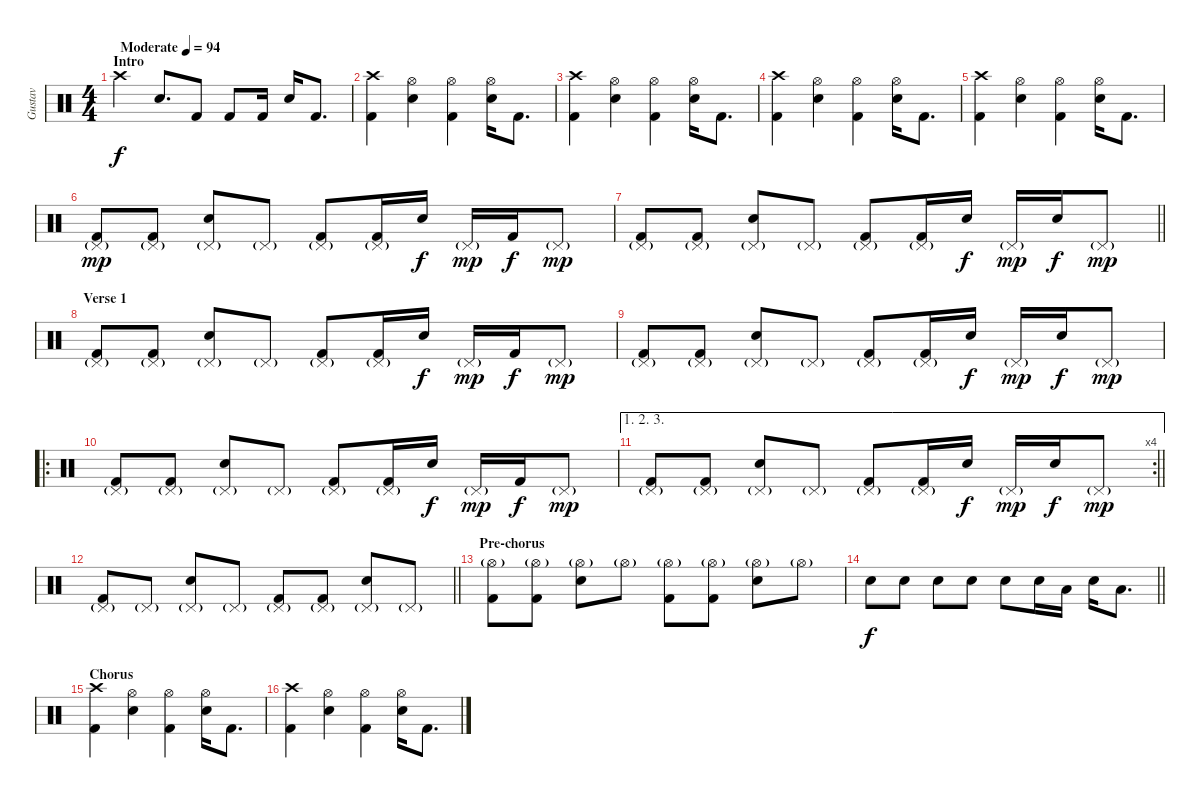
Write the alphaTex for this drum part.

\track ("Gustav" "Gustav") {instrument percussion}
\staff {score}
\articulation defaults
\ts (4 4)
\section ("" "Intro")
\tempo (94 "Moderate")
\clef neutral
\ks c "Crash high (hit)".4{dy f} "Electric Snare (hit)".8{d} "Kick (hit) 2".8 "Kick (hit) 2".8 "Kick (hit) 2".16 "Electric Snare (hit)".16 "Kick (hit) 2".8{d}
|
("Crash high (hit)" "Kick (hit) 2").4 ("Hi-Hat (open)" "Electric Snare (hit)").4 ("Hi-Hat (open)" "Kick (hit) 2").4 ("Hi-Hat (open)" "Electric Snare (hit)").16 "Kick (hit) 2".8{d} |
("Crash high (hit)" "Kick (hit) 2").4 ("Hi-Hat (open)" "Electric Snare (hit)").4 ("Hi-Hat (open)" "Kick (hit) 2").4 ("Hi-Hat (open)" "Electric Snare (hit)").16 "Kick (hit) 2".8{d} |
("Crash high (hit)" "Kick (hit) 2").4 ("Hi-Hat (open)" "Electric Snare (hit)").4 ("Hi-Hat (open)" "Kick (hit) 2").4 ("Hi-Hat (open)" "Electric Snare (hit)").16 "Kick (hit) 2".8{d} |
("Crash high (hit)" "Kick (hit) 2").4 ("Hi-Hat (open)" "Electric Snare (hit)").4 ("Hi-Hat (open)" "Kick (hit) 2").4 ("Hi-Hat (open)" "Electric Snare (hit)").16 "Kick (hit) 2".8{d} |
("Pedal Hi-Hat (hit)"{g} "Kick (hit) 2").8{dy mp} ("Pedal Hi-Hat (hit)"{g} "Kick (hit) 2").8 ("Pedal Hi-Hat (hit)"{g} "Electric Snare (hit)").8 "Pedal Hi-Hat (hit)"{g}.8 ("Pedal Hi-Hat (hit)"{g} "Kick (hit) 2").8 ("Pedal Hi-Hat (hit)"{g} "Kick (hit) 2").16 "Electric Snare (hit)".16{dy f} "Pedal Hi-Hat (hit)"{g}.16{dy mp} "Kick (hit) 2".16{dy f} "Pedal Hi-Hat (hit)"{g}.8{dy mp} |
\barLineRight lightlight
("Pedal Hi-Hat (hit)"{g} "Kick (hit) 2").8 ("Pedal Hi-Hat (hit)"{g} "Kick (hit) 2").8 ("Pedal Hi-Hat (hit)"{g} "Electric Snare (hit)").8 "Pedal Hi-Hat (hit)"{g}.8 ("Pedal Hi-Hat (hit)"{g} "Kick (hit) 2").8 ("Pedal Hi-Hat (hit)"{g} "Kick (hit) 2").16 "Electric Snare (hit)".16{dy f} "Pedal Hi-Hat (hit)"{g}.16{dy mp} "Electric Snare (hit)".16{dy f} "Pedal Hi-Hat (hit)"{g}.8{dy mp} |
\section ("" "Verse 1")
("Pedal Hi-Hat (hit)"{g} "Kick (hit) 2").8 ("Pedal Hi-Hat (hit)"{g} "Kick (hit) 2").8 ("Pedal Hi-Hat (hit)"{g} "Electric Snare (hit)").8 "Pedal Hi-Hat (hit)"{g}.8 ("Pedal Hi-Hat (hit)"{g} "Kick (hit) 2").8 ("Pedal Hi-Hat (hit)"{g} "Kick (hit) 2").16 "Electric Snare (hit)".16{dy f} "Pedal Hi-Hat (hit)"{g}.16{dy mp} "Kick (hit) 2".16{dy f} "Pedal Hi-Hat (hit)"{g}.8{dy mp} |
("Pedal Hi-Hat (hit)"{g} "Kick (hit) 2").8 ("Pedal Hi-Hat (hit)"{g} "Kick (hit) 2").8 ("Pedal Hi-Hat (hit)"{g} "Electric Snare (hit)").8 "Pedal Hi-Hat (hit)"{g}.8 ("Pedal Hi-Hat (hit)"{g} "Kick (hit) 2").8 ("Pedal Hi-Hat (hit)"{g} "Kick (hit) 2").16 "Electric Snare (hit)".16{dy f} "Pedal Hi-Hat (hit)"{g}.16{dy mp} "Electric Snare (hit)".16{dy f} "Pedal Hi-Hat (hit)"{g}.8{dy mp} |
\ro
("Pedal Hi-Hat (hit)"{g} "Kick (hit) 2").8 ("Pedal Hi-Hat (hit)"{g} "Kick (hit) 2").8 ("Pedal Hi-Hat (hit)"{g} "Electric Snare (hit)").8 "Pedal Hi-Hat (hit)"{g}.8 ("Pedal Hi-Hat (hit)"{g} "Kick (hit) 2").8 ("Pedal Hi-Hat (hit)"{g} "Kick (hit) 2").16 "Electric Snare (hit)".16{dy f} "Pedal Hi-Hat (hit)"{g}.16{dy mp} "Kick (hit) 2".16{dy f} "Pedal Hi-Hat (hit)"{g}.8{dy mp} |
\ae (1 2 3)
\rc 4
\barLineRight lightlight
("Pedal Hi-Hat (hit)"{g} "Kick (hit) 2").8 ("Pedal Hi-Hat (hit)"{g} "Kick (hit) 2").8 ("Pedal Hi-Hat (hit)"{g} "Electric Snare (hit)").8 "Pedal Hi-Hat (hit)"{g}.8 ("Pedal Hi-Hat (hit)"{g} "Kick (hit) 2").8 ("Pedal Hi-Hat (hit)"{g} "Kick (hit) 2").16 "Electric Snare (hit)".16{dy f} "Pedal Hi-Hat (hit)"{g}.16{dy mp} "Electric Snare (hit)".16{dy f} "Pedal Hi-Hat (hit)"{g}.8{dy mp} |
\barLineRight lightlight
("Pedal Hi-Hat (hit)"{g} "Kick (hit) 2").8 "Pedal Hi-Hat (hit)"{g}.8 ("Pedal Hi-Hat (hit)"{g} "Electric Snare (hit)").8 "Pedal Hi-Hat (hit)"{g}.8 ("Pedal Hi-Hat (hit)"{g} "Kick (hit) 2").8 ("Pedal Hi-Hat (hit)"{g} "Kick (hit) 2").8 ("Pedal Hi-Hat (hit)"{g} "Electric Snare (hit)").8 "Pedal Hi-Hat (hit)"{g}.8 |
\section ("" "Pre-chorus")
("Hi-Hat (open)"{g} "Kick (hit) 2").8 ("Hi-Hat (open)"{g} "Kick (hit) 2").8 ("Hi-Hat (open)"{g} "Electric Snare (hit)").8 "Hi-Hat (open)"{g}.8 ("Hi-Hat (open)"{g} "Kick (hit) 2").8 ("Hi-Hat (open)"{g} "Kick (hit) 2").8 ("Hi-Hat (open)"{g} "Electric Snare (hit)").8 "Hi-Hat (open)"{g}.8 |
\barLineRight lightlight "Electric Snare (hit)".8{dy f} "Electric Snare (hit)".8 "Electric Snare (hit)".8 "Electric Snare (hit)".8 "Electric Snare (hit)".8 "Electric Snare (hit)".16 "Low Tom (hit)".16 "Electric Snare (hit)".16 "Low Tom (hit)".8{d}
|
\section ("" "Chorus")
("Crash high (hit)" "Kick (hit) 2").4 ("Hi-Hat (open)" "Electric Snare (hit)").4 ("Hi-Hat (open)" "Kick (hit) 2").4 ("Hi-Hat (open)" "Electric Snare (hit)").16 "Kick (hit) 2".8{d} |
("Crash high (hit)" "Kick (hit) 2").4 ("Hi-Hat (open)" "Electric Snare (hit)").4 ("Hi-Hat (open)" "Kick (hit) 2").4 ("Hi-Hat (open)" "Electric Snare (hit)").16 "Kick (hit) 2".8{d}
